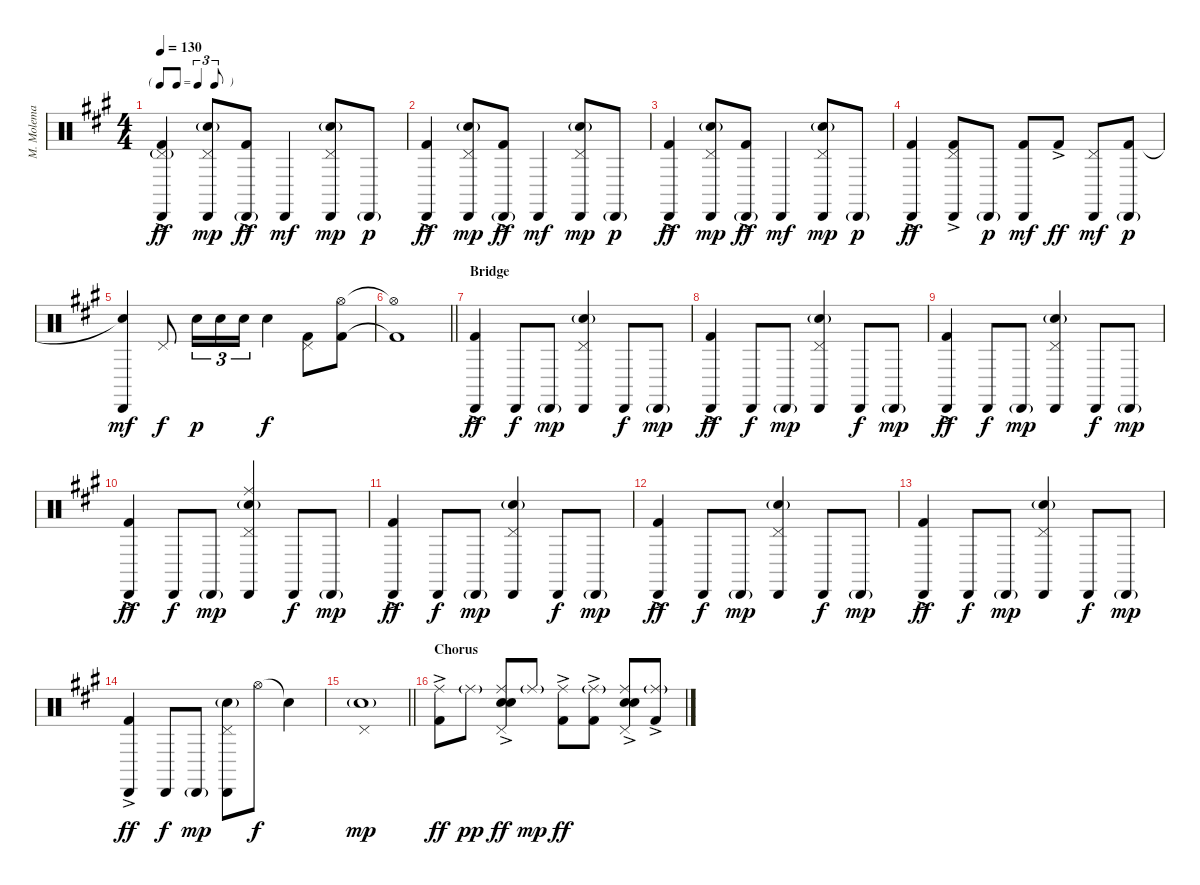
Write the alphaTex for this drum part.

\track ("M. Molema" "M. Molema") {instrument percussion}
\staff {score}
\articulation defaults
\ts (4 4)
\tf triplet8th
\tempo 130
\clef neutral
\ks a
("Pedal Hi-Hat (hit)"{g} "Cabasa (hit)" "Kick (hit) 2"{ac}).4{dy ff} ("Pedal Hi-Hat (hit)" "Cabasa (hit)" "Snare (hit) 2"{g}).8{dy mp} ("Cabasa (hit)"{g} "Kick (hit) 2"{ac}).8{dy ff} "Cabasa (hit)".4{dy mf} ("Pedal Hi-Hat (hit)" "Cabasa (hit)" "Snare (hit) 2"{g}).8{dy mp} "Cabasa (hit)"{g}.8{dy p} |
("Cabasa (hit)" "Kick (hit) 2"{ac}).4{dy ff} ("Pedal Hi-Hat (hit)" "Cabasa (hit)" "Snare (hit) 2"{g}).8{dy mp} ("Cabasa (hit)"{g} "Kick (hit) 2"{ac}).8{dy ff} "Cabasa (hit)".4{dy mf} ("Pedal Hi-Hat (hit)" "Cabasa (hit)" "Snare (hit) 2"{g}).8{dy mp} "Cabasa (hit)"{g}.8{dy p} |
("Cabasa (hit)" "Kick (hit) 2"{ac}).4{dy ff} ("Pedal Hi-Hat (hit)" "Cabasa (hit)" "Snare (hit) 2"{g}).8{dy mp} ("Cabasa (hit)"{g} "Kick (hit) 2"{ac}).8{dy ff} "Cabasa (hit)".4{dy mf} ("Pedal Hi-Hat (hit)" "Cabasa (hit)" "Snare (hit) 2"{g}).8{dy mp} "Cabasa (hit)"{g}.8{dy p} |
("Cabasa (hit)" "Kick (hit) 2"{ac}).4{dy ff} ("Pedal Hi-Hat (hit)" "Cabasa (hit)" "Kick (hit) 2"{ac}).8 "Cabasa (hit)"{g}.8{dy p} ("Cabasa (hit)" "Kick (hit) 2").8{dy mf} "Kick (hit) 2"{ac}.8{dy ff} ("Pedal Hi-Hat (hit)" "Cabasa (hit)").8{dy mf} ("Cabasa (hit)"{g} "Kick (hit) 2").8{dy p} |
("Cabasa (hit)" "Snare (hit)"{t}).4{dy mf} "Pedal Hi-Hat (hit)".8{dy f} "Snare (hit) 2".16{tu (3 2) dy p} "Snare (hit) 2".16{tu (3 2)} "Snare (hit) 2".16{tu (3 2)} "Snare (hit) 2".4{dy f} ("Pedal Hi-Hat (hit)" "Kick (hit) 2").8 ("Hi-Hat (open)" "Kick (hit) 2").8 |
\barLineRight lightlight
("Hi-Hat (open)"{t} "Kick (hit) 2"{t}).1 |
\section ("" "Bridge")
("Cabasa (hit)" "Kick (hit) 2"{ac}).4{dy ff} "Cabasa (hit)".8{dy f} "Cabasa (hit)"{g}.8{dy mp} ("Pedal Hi-Hat (hit)" "Cabasa (hit)" "Snare (hit) 2"{g}).4 "Cabasa (hit)".8{dy f} "Cabasa (hit)"{g}.8{dy mp} |
("Cabasa (hit)" "Kick (hit) 2"{ac}).4{dy ff} "Cabasa (hit)".8{dy f} "Cabasa (hit)"{g}.8{dy mp} ("Pedal Hi-Hat (hit)" "Cabasa (hit)" "Snare (hit) 2"{g}).4 "Cabasa (hit)".8{dy f} "Cabasa (hit)"{g}.8{dy mp} |
("Cabasa (hit)" "Kick (hit) 2"{ac}).4{dy ff} "Cabasa (hit)".8{dy f} "Cabasa (hit)"{g}.8{dy mp} ("Pedal Hi-Hat (hit)" "Cabasa (hit)" "Snare (hit) 2"{g}).4 "Cabasa (hit)".8{dy f} "Cabasa (hit)"{g}.8{dy mp} |
("Cabasa (hit)" "Kick (hit) 2"{ac}).4{dy ff} "Cabasa (hit)".8{dy f} "Cabasa (hit)"{g}.8{dy mp} ("Pedal Hi-Hat (hit)" "Ride (middle)" "Cabasa (hit)" "Snare (hit) 2"{g}).4 "Cabasa (hit)".8{dy f} "Cabasa (hit)"{g}.8{dy mp} |
("Cabasa (hit)" "Kick (hit) 2"{ac}).4{dy ff} "Cabasa (hit)".8{dy f} "Cabasa (hit)"{g}.8{dy mp} ("Pedal Hi-Hat (hit)" "Cabasa (hit)" "Snare (hit) 2"{g}).4 "Cabasa (hit)".8{dy f} "Cabasa (hit)"{g}.8{dy mp} |
("Cabasa (hit)" "Kick (hit) 2"{ac}).4{dy ff} "Cabasa (hit)".8{dy f} "Cabasa (hit)"{g}.8{dy mp} ("Pedal Hi-Hat (hit)" "Cabasa (hit)" "Snare (hit) 2"{g}).4 "Cabasa (hit)".8{dy f} "Cabasa (hit)"{g}.8{dy mp} |
("Cabasa (hit)" "Kick (hit) 2"{ac}).4{dy ff} "Cabasa (hit)".8{dy f} "Cabasa (hit)"{g}.8{dy mp} ("Pedal Hi-Hat (hit)" "Cabasa (hit)" "Snare (hit) 2"{g}).4 "Cabasa (hit)".8{dy f} "Cabasa (hit)"{g}.8{dy mp} |
("Cabasa (hit)" "Kick (hit) 2"{ac}).4{dy ff} "Cabasa (hit)".8{dy f} "Cabasa (hit)"{g}.8{dy mp} ("Pedal Hi-Hat (hit)" "Cabasa (hit)" "Snare (hit) 2"{g}).8 "Hi-Hat (open)".8{dy f} "Snare (hit)"{t}.4 |
\barLineRight lightlight
("Pedal Hi-Hat (hit)" "Snare (hit) 2"{g}).1{dy mp} |
\section ("" "Chorus")
("Ride (middle)" "Kick (hit) 2"{ac}).8{dy ff} "Ride (middle)"{g}.8{dy pp} ("Ride (middle)" "Electric Snare (hit)"{ac} "Snare (hit) 2" "Pedal Hi-Hat (hit)").8{dy ff} "Ride (middle)"{g}.8{dy mp} ("Ride (middle)" "Kick (hit) 2"{ac}).8{dy ff} ("Ride (middle)"{g} "Kick (hit) 2"{ac}).8 ("Ride (middle)" "Electric Snare (hit)"{ac} "Snare (hit) 2" "Pedal Hi-Hat (hit)").8 ("Ride (middle)"{g} "Kick (hit) 2"{ac}).8
